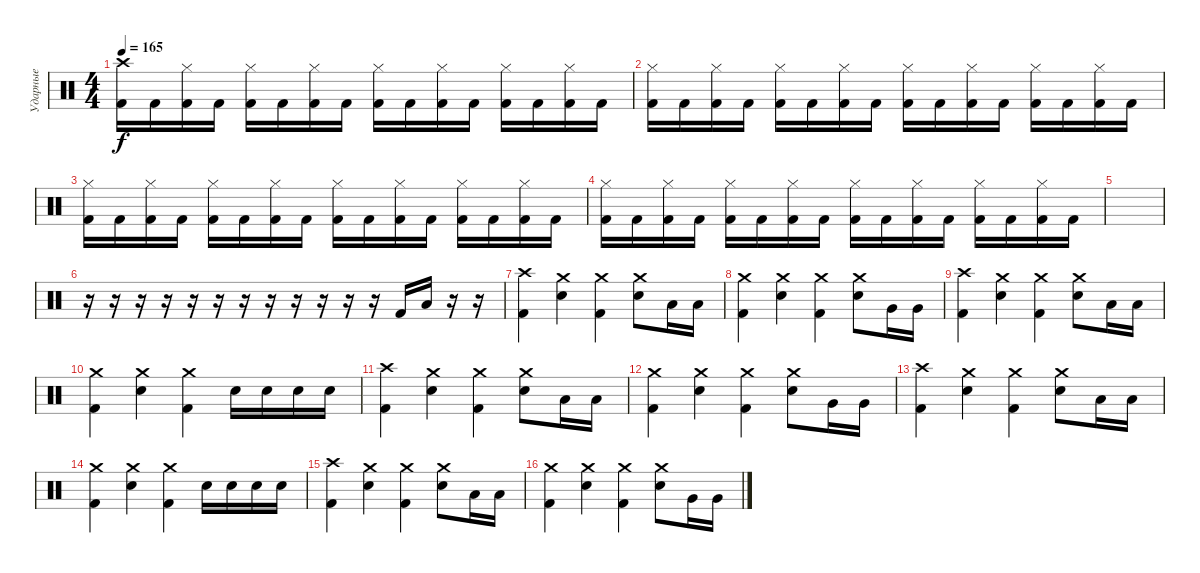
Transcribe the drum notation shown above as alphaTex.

\track ("Ударные" "Ударные") {instrument percussion}
\staff {score}
\articulation defaults
\ts (4 4)
\tempo 165
\clef neutral
\ks c
("Kick (hit) 2" "Crash high (hit)").16{dy f} "Kick (hit) 2".16 ("Kick (hit) 2" "Hi-Hat (closed)").16 "Kick (hit) 2".16 ("Kick (hit) 2" "Hi-Hat (closed)").16 "Kick (hit) 2".16 ("Kick (hit) 2" "Hi-Hat (closed)").16 "Kick (hit) 2".16 ("Kick (hit) 2" "Hi-Hat (closed)").16 "Kick (hit) 2".16 ("Kick (hit) 2" "Hi-Hat (closed)").16 "Kick (hit) 2".16 ("Kick (hit) 2" "Hi-Hat (closed)").16 "Kick (hit) 2".16 ("Kick (hit) 2" "Hi-Hat (closed)").16 "Kick (hit) 2".16 |
("Kick (hit) 2" "Hi-Hat (closed)").16 "Kick (hit) 2".16 ("Kick (hit) 2" "Hi-Hat (closed)").16 "Kick (hit) 2".16 ("Kick (hit) 2" "Hi-Hat (closed)").16 "Kick (hit) 2".16 ("Kick (hit) 2" "Hi-Hat (closed)").16 "Kick (hit) 2".16 ("Kick (hit) 2" "Hi-Hat (closed)").16 "Kick (hit) 2".16 ("Kick (hit) 2" "Hi-Hat (closed)").16 "Kick (hit) 2".16 ("Kick (hit) 2" "Hi-Hat (closed)").16 "Kick (hit) 2".16 ("Kick (hit) 2" "Hi-Hat (closed)").16 "Kick (hit) 2".16 |
("Kick (hit) 2" "Hi-Hat (closed)").16 "Kick (hit) 2".16 ("Kick (hit) 2" "Hi-Hat (closed)").16 "Kick (hit) 2".16 ("Kick (hit) 2" "Hi-Hat (closed)").16 "Kick (hit) 2".16 ("Kick (hit) 2" "Hi-Hat (closed)").16 "Kick (hit) 2".16 ("Kick (hit) 2" "Hi-Hat (closed)").16 "Kick (hit) 2".16 ("Kick (hit) 2" "Hi-Hat (closed)").16 "Kick (hit) 2".16 ("Kick (hit) 2" "Hi-Hat (closed)").16 "Kick (hit) 2".16 ("Kick (hit) 2" "Hi-Hat (closed)").16 "Kick (hit) 2".16 |
("Kick (hit) 2" "Hi-Hat (closed)").16 "Kick (hit) 2".16 ("Kick (hit) 2" "Hi-Hat (closed)").16 "Kick (hit) 2".16 ("Kick (hit) 2" "Hi-Hat (closed)").16 "Kick (hit) 2".16 ("Kick (hit) 2" "Hi-Hat (closed)").16 "Kick (hit) 2".16 ("Kick (hit) 2" "Hi-Hat (closed)").16 "Kick (hit) 2".16 ("Kick (hit) 2" "Hi-Hat (closed)").16 "Kick (hit) 2".16 ("Kick (hit) 2" "Hi-Hat (closed)").16 "Kick (hit) 2".16 ("Kick (hit) 2" "Hi-Hat (closed)").16 "Kick (hit) 2".16 |
|
r.16 r.16 r.16 r.16 r.16 r.16 r.16 r.16 r.16 r.16 r.16 r.16 "Kick (hit) 2".16 "Low Tom (hit)".16 r.16 r.16 |
("Crash high (hit)" "Kick (hit) 2").4 ("Crash medium (hit)" "Snare (hit) 2").4 ("Kick (hit) 2" "Crash medium (hit)").4 ("Snare (hit) 2" "Crash medium (hit)").8 "Low Tom (hit)".16 "Low Tom (hit)".16 |
("Crash medium (hit)" "Kick (hit) 2").4 ("Crash medium (hit)" "Snare (hit) 2").4 ("Kick (hit) 2" "Crash medium (hit)").4 ("Snare (hit) 2" "Crash medium (hit)").8 "Very Low Tom (hit)".16 "Very Low Tom (hit)".16 |
("Crash high (hit)" "Kick (hit) 2").4 ("Crash medium (hit)" "Snare (hit) 2").4 ("Kick (hit) 2" "Crash medium (hit)").4 ("Snare (hit) 2" "Crash medium (hit)").8 "Low Tom (hit)".16 "Low Tom (hit)".16 |
("Crash medium (hit)" "Kick (hit) 2").4 ("Crash medium (hit)" "Snare (hit) 2").4 ("Kick (hit) 2" "Crash medium (hit)").4 "Snare (hit) 2".16 "Snare (hit) 2".16 "Snare (hit) 2".16 "Snare (hit) 2".16 |
("Crash high (hit)" "Kick (hit) 2").4 ("Crash medium (hit)" "Snare (hit) 2").4 ("Kick (hit) 2" "Crash medium (hit)").4 ("Snare (hit) 2" "Crash medium (hit)").8 "Low Tom (hit)".16 "Low Tom (hit)".16 |
("Crash medium (hit)" "Kick (hit) 2").4 ("Crash medium (hit)" "Snare (hit) 2").4 ("Kick (hit) 2" "Crash medium (hit)").4 ("Snare (hit) 2" "Crash medium (hit)").8 "Very Low Tom (hit)".16 "Very Low Tom (hit)".16 |
("Crash high (hit)" "Kick (hit) 2").4 ("Crash medium (hit)" "Snare (hit) 2").4 ("Kick (hit) 2" "Crash medium (hit)").4 ("Snare (hit) 2" "Crash medium (hit)").8 "Low Tom (hit)".16 "Low Tom (hit)".16 |
("Crash medium (hit)" "Kick (hit) 2").4 ("Crash medium (hit)" "Snare (hit) 2").4 ("Kick (hit) 2" "Crash medium (hit)").4 "Snare (hit) 2".16 "Snare (hit) 2".16 "Snare (hit) 2".16 "Snare (hit) 2".16 |
("Crash high (hit)" "Kick (hit) 2").4 ("Crash medium (hit)" "Snare (hit) 2").4 ("Kick (hit) 2" "Crash medium (hit)").4 ("Snare (hit) 2" "Crash medium (hit)").8 "Low Tom (hit)".16 "Low Tom (hit)".16 |
("Crash medium (hit)" "Kick (hit) 2").4 ("Crash medium (hit)" "Snare (hit) 2").4 ("Kick (hit) 2" "Crash medium (hit)").4 ("Snare (hit) 2" "Crash medium (hit)").8 "Very Low Tom (hit)".16 "Very Low Tom (hit)".16
